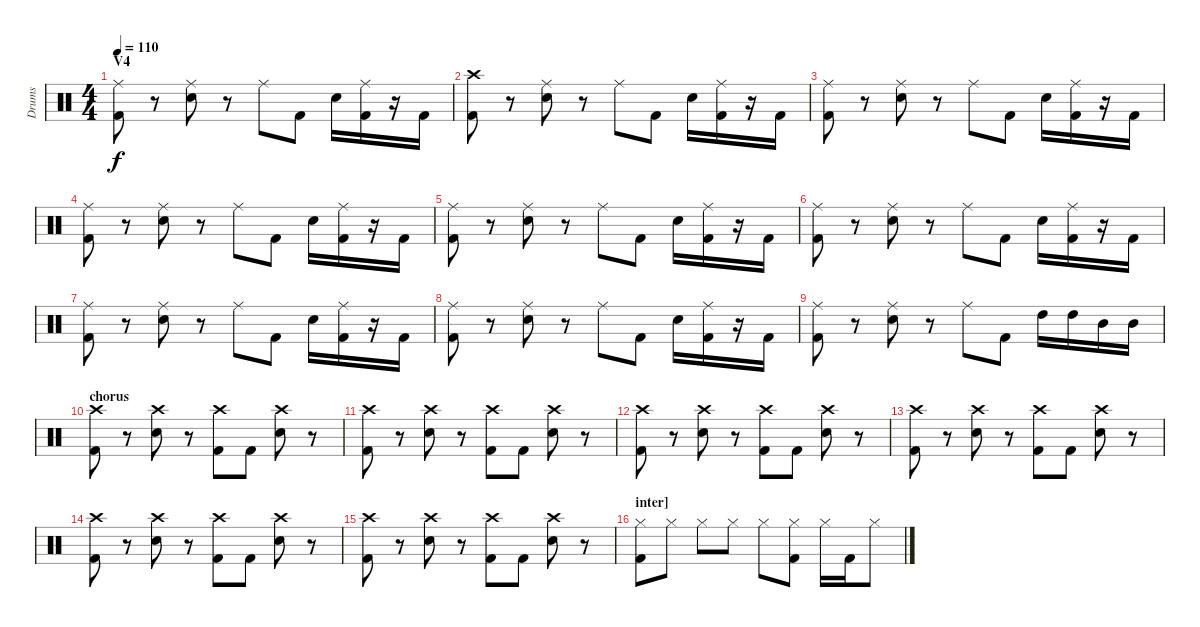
\track ("Drums" "Drums") {instrument percussion}
\staff {score}
\articulation defaults
\ts (4 4)
\section ("" "V4")
\tempo 110
\clef neutral
\ks c
("Ride (middle)" "Kick (hit) 2").8{dy f} r.8 ("Ride (middle)" "Snare (hit) 2").8 r.8 "Ride (middle)".8 "Kick (hit) 2".8 "Snare (hit) 2".16 ("Ride (middle)" "Kick (hit) 2").16 r.16 "Kick (hit) 2".16 |
("Crash high (hit)" "Kick (hit) 2").8 r.8 ("Ride (middle)" "Snare (hit) 2").8 r.8 "Ride (middle)".8 "Kick (hit) 2".8 "Snare (hit) 2".16 ("Ride (middle)" "Kick (hit) 2").16 r.16 "Kick (hit) 2".16 |
("Ride (middle)" "Kick (hit) 2").8 r.8 ("Ride (middle)" "Snare (hit) 2").8 r.8 "Ride (middle)".8 "Kick (hit) 2".8 "Snare (hit) 2".16 ("Ride (middle)" "Kick (hit) 2").16 r.16 "Kick (hit) 2".16 |
("Ride (middle)" "Kick (hit) 2").8 r.8 ("Ride (middle)" "Snare (hit) 2").8 r.8 "Ride (middle)".8 "Kick (hit) 2".8 "Snare (hit) 2".16 ("Ride (middle)" "Kick (hit) 2").16 r.16 "Kick (hit) 2".16 |
("Ride (middle)" "Kick (hit) 2").8 r.8 ("Ride (middle)" "Snare (hit) 2").8 r.8 "Ride (middle)".8 "Kick (hit) 2".8 "Snare (hit) 2".16 ("Ride (middle)" "Kick (hit) 2").16 r.16 "Kick (hit) 2".16 |
("Ride (middle)" "Kick (hit) 2").8 r.8 ("Ride (middle)" "Snare (hit) 2").8 r.8 "Ride (middle)".8 "Kick (hit) 2".8 "Snare (hit) 2".16 ("Ride (middle)" "Kick (hit) 2").16 r.16 "Kick (hit) 2".16 |
("Ride (middle)" "Kick (hit) 2").8 r.8 ("Ride (middle)" "Snare (hit) 2").8 r.8 "Ride (middle)".8 "Kick (hit) 2".8 "Snare (hit) 2".16 ("Ride (middle)" "Kick (hit) 2").16 r.16 "Kick (hit) 2".16 |
("Ride (middle)" "Kick (hit) 2").8 r.8 ("Ride (middle)" "Snare (hit) 2").8 r.8 "Ride (middle)".8 "Kick (hit) 2".8 "Snare (hit) 2".16 ("Ride (middle)" "Kick (hit) 2").16 r.16 "Kick (hit) 2".16 |
("Ride (middle)" "Kick (hit) 2").8 r.8 ("Ride (middle)" "Snare (hit) 2").8 r.8 "Ride (middle)".8 "Kick (hit) 2".8 "High Tom (hit)".16 "High Tom (hit)".16 "Mid Tom (hit)".16 "Mid Tom (hit)".16 |
\section ("" "chorus")
("Crash high (hit)" "Kick (hit) 2").8 r.8 ("Crash high (hit)" "Snare (hit) 2").8 r.8 ("Crash high (hit)" "Kick (hit) 2").8 "Kick (hit) 2".8 ("Crash high (hit)" "Snare (hit) 2").8 r.8 |
("Crash high (hit)" "Kick (hit) 2").8 r.8 ("Crash high (hit)" "Snare (hit) 2").8 r.8 ("Crash high (hit)" "Kick (hit) 2").8 "Kick (hit) 2".8 ("Crash high (hit)" "Snare (hit) 2").8 r.8 |
("Crash high (hit)" "Kick (hit) 2").8 r.8 ("Crash high (hit)" "Snare (hit) 2").8 r.8 ("Crash high (hit)" "Kick (hit) 2").8 "Kick (hit) 2".8 ("Crash high (hit)" "Snare (hit) 2").8 r.8 |
("Crash high (hit)" "Kick (hit) 2").8 r.8 ("Crash high (hit)" "Snare (hit) 2").8 r.8 ("Crash high (hit)" "Kick (hit) 2").8 "Kick (hit) 2".8 ("Crash high (hit)" "Snare (hit) 2").8 r.8 |
("Crash high (hit)" "Kick (hit) 2").8 r.8 ("Crash high (hit)" "Snare (hit) 2").8 r.8 ("Crash high (hit)" "Kick (hit) 2").8 "Kick (hit) 2".8 ("Crash high (hit)" "Snare (hit) 2").8 r.8 |
("Crash high (hit)" "Kick (hit) 2").8 r.8 ("Crash high (hit)" "Snare (hit) 2").8 r.8 ("Crash high (hit)" "Kick (hit) 2").8 "Kick (hit) 2".8 ("Crash high (hit)" "Snare (hit) 2").8 r.8 |
\section ("" "inter]")
("Hi-Hat (closed)" "Kick (hit) 2").8 "Hi-Hat (closed)".8 "Hi-Hat (closed)".8 "Hi-Hat (closed)".8 "Hi-Hat (closed)".8 ("Hi-Hat (closed)" "Kick (hit) 2").8 "Hi-Hat (closed)".16 "Kick (hit) 2".16 "Hi-Hat (closed)".8
